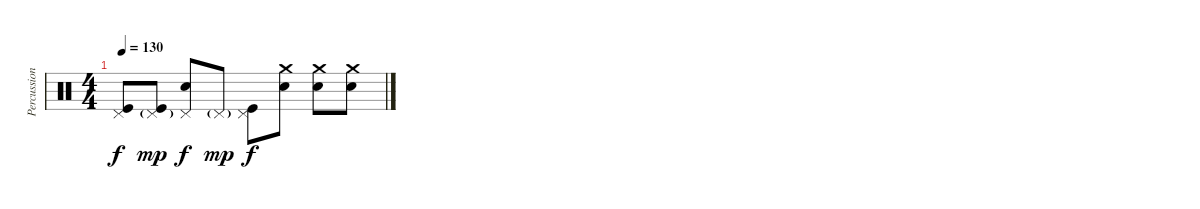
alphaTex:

\track ("Percussion" "Percussion") {instrument percussion}
\staff {score}
\articulation defaults
\ts (4 4)
\tempo 130
\clef neutral
\ks c
("Pedal Hi-Hat (hit)" "Kick (hit)").8{dy f} ("Pedal Hi-Hat (hit)"{g} "Kick (hit)").8{dy mp} ("Pedal Hi-Hat (hit)" "Snare (hit) 2").8{dy f} "Pedal Hi-Hat (hit)"{g}.8{dy mp} ("Pedal Hi-Hat (hit)" "Kick (hit)").8{dy f} ("Crash medium (hit)" "Snare (hit) 2").8 ("Crash medium (hit)" "Snare (hit) 2").8 ("Crash medium (hit)" "Snare (hit) 2").8
